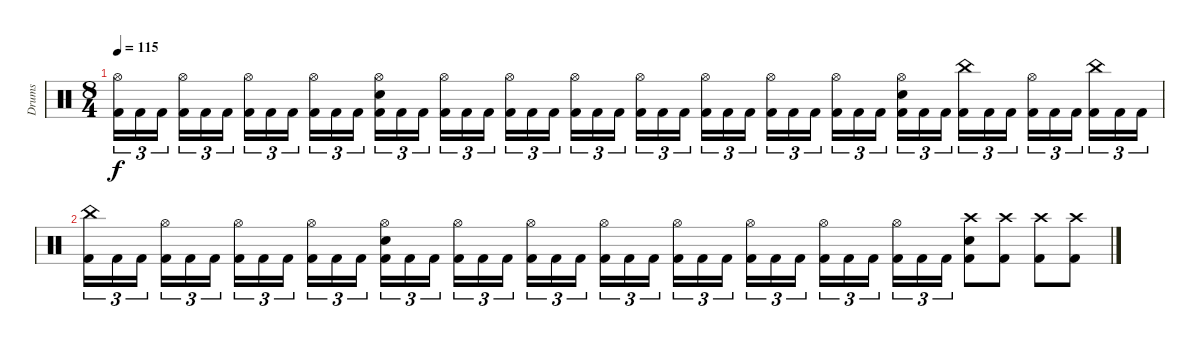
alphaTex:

\track ("Drums" "Drums") {instrument percussion}
\staff {score}
\articulation defaults
\ts (8 4)
\tempo 115
\clef neutral
\ks c
("Hi-Hat (open)" "Kick (hit) 2").16{tu (3 2) dy f} "Kick (hit) 2".16{tu (3 2)} "Kick (hit) 2".16{tu (3 2) beam splitsecondary} ("Hi-Hat (open)" "Kick (hit) 2").16{tu (3 2)} "Kick (hit) 2".16{tu (3 2)} "Kick (hit) 2".16{tu (3 2)} ("Hi-Hat (open)" "Kick (hit) 2").16{tu (3 2)} "Kick (hit) 2".16{tu (3 2)} "Kick (hit) 2".16{tu (3 2) beam splitsecondary} ("Hi-Hat (open)" "Kick (hit) 2").16{tu (3 2)} "Kick (hit) 2".16{tu (3 2)} "Kick (hit) 2".16{tu (3 2)} ("Hi-Hat (open)" "Snare (hit) 2" "Kick (hit) 2").16{tu (3 2)} "Kick (hit) 2".16{tu (3 2)} "Kick (hit) 2".16{tu (3 2) beam splitsecondary} ("Hi-Hat (open)" "Kick (hit) 2").16{tu (3 2)} "Kick (hit) 2".16{tu (3 2)} "Kick (hit) 2".16{tu (3 2)} ("Hi-Hat (open)" "Kick (hit) 2").16{tu (3 2)} "Kick (hit) 2".16{tu (3 2)} "Kick (hit) 2".16{tu (3 2) beam splitsecondary} ("Hi-Hat (open)" "Kick (hit) 2").16{tu (3 2)} "Kick (hit) 2".16{tu (3 2)} "Kick (hit) 2".16{tu (3 2)} ("Hi-Hat (open)" "Kick (hit) 2").16{tu (3 2)} "Kick (hit) 2".16{tu (3 2)} "Kick (hit) 2".16{tu (3 2) beam splitsecondary} ("Hi-Hat (open)" "Kick (hit) 2").16{tu (3 2)} "Kick (hit) 2".16{tu (3 2)} "Kick (hit) 2".16{tu (3 2)} ("Hi-Hat (open)" "Kick (hit) 2").16{tu (3 2)} "Kick (hit) 2".16{tu (3 2)} "Kick (hit) 2".16{tu (3 2) beam splitsecondary} ("Hi-Hat (open)" "Kick (hit) 2").16{tu (3 2)} "Kick (hit) 2".16{tu (3 2)} "Kick (hit) 2".16{tu (3 2)} ("Hi-Hat (open)" "Snare (hit) 2" "Kick (hit) 2").16{tu (3 2)} "Kick (hit) 2".16{tu (3 2)} "Kick (hit) 2".16{tu (3 2) beam splitsecondary} ("China (hit)" "Kick (hit) 2").16{tu (3 2)} "Kick (hit) 2".16{tu (3 2)} "Kick (hit) 2".16{tu (3 2)} ("Hi-Hat (open)" "Kick (hit) 2").16{tu (3 2)} "Kick (hit) 2".16{tu (3 2)} "Kick (hit) 2".16{tu (3 2) beam splitsecondary} ("China (hit)" "Kick (hit) 2").16{tu (3 2)} "Kick (hit) 2".16{tu (3 2)} "Kick (hit) 2".16{tu (3 2)} |
("China (hit)" "Kick (hit) 2").16{tu (3 2)} "Kick (hit) 2".16{tu (3 2)} "Kick (hit) 2".16{tu (3 2) beam splitsecondary} ("Hi-Hat (open)" "Kick (hit) 2").16{tu (3 2)} "Kick (hit) 2".16{tu (3 2)} "Kick (hit) 2".16{tu (3 2)} ("Hi-Hat (open)" "Kick (hit) 2").16{tu (3 2)} "Kick (hit) 2".16{tu (3 2)} "Kick (hit) 2".16{tu (3 2) beam splitsecondary} ("Hi-Hat (open)" "Kick (hit) 2").16{tu (3 2)} "Kick (hit) 2".16{tu (3 2)} "Kick (hit) 2".16{tu (3 2)} ("Hi-Hat (open)" "Snare (hit) 2" "Kick (hit) 2").16{tu (3 2)} "Kick (hit) 2".16{tu (3 2)} "Kick (hit) 2".16{tu (3 2) beam splitsecondary} ("Hi-Hat (open)" "Kick (hit) 2").16{tu (3 2)} "Kick (hit) 2".16{tu (3 2)} "Kick (hit) 2".16{tu (3 2)} ("Hi-Hat (open)" "Kick (hit) 2").16{tu (3 2)} "Kick (hit) 2".16{tu (3 2)} "Kick (hit) 2".16{tu (3 2) beam splitsecondary} ("Hi-Hat (open)" "Kick (hit) 2").16{tu (3 2)} "Kick (hit) 2".16{tu (3 2)} "Kick (hit) 2".16{tu (3 2)} ("Hi-Hat (open)" "Kick (hit) 2").16{tu (3 2)} "Kick (hit) 2".16{tu (3 2)} "Kick (hit) 2".16{tu (3 2) beam splitsecondary} ("Hi-Hat (open)" "Kick (hit) 2").16{tu (3 2)} "Kick (hit) 2".16{tu (3 2)} "Kick (hit) 2".16{tu (3 2)} ("Hi-Hat (open)" "Kick (hit) 2").16{tu (3 2)} "Kick (hit) 2".16{tu (3 2)} "Kick (hit) 2".16{tu (3 2) beam splitsecondary} ("Hi-Hat (open)" "Kick (hit) 2").16{tu (3 2)} "Kick (hit) 2".16{tu (3 2)} "Kick (hit) 2".16{tu (3 2)} ("Crash high (hit)" "Snare (hit) 2" "Kick (hit) 2").8 ("Crash high (hit)" "Kick (hit) 2").8 ("Crash high (hit)" "Kick (hit) 2").8 ("Crash high (hit)" "Kick (hit) 2").8
